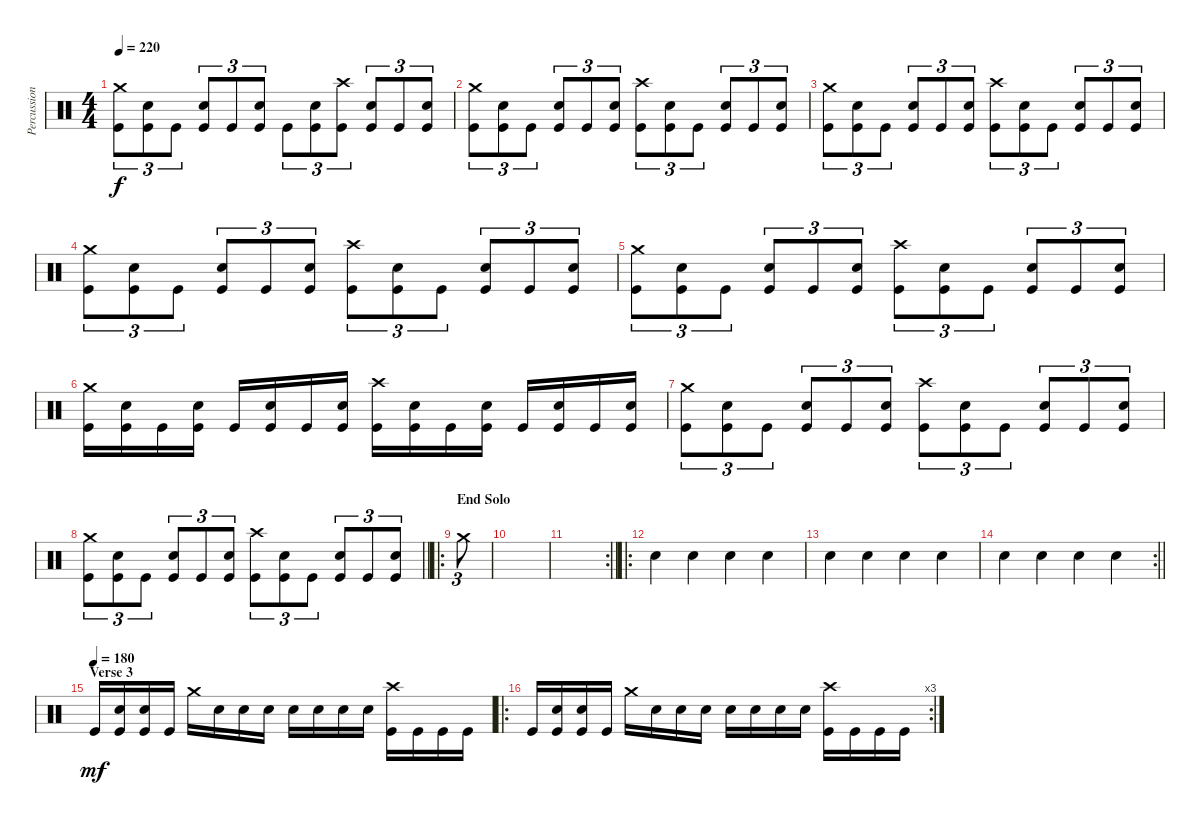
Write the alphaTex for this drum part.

\track ("Percussion" "Percussion") {instrument percussion}
\staff {score}
\articulation defaults
\ts (4 4)
\tempo 220
\clef neutral
\ks c
("Crash medium (hit)" "Kick (hit)").8{tu (3 2) dy f} ("Electric Snare (hit)" "Kick (hit)").8{tu (3 2)} "Kick (hit)".8{tu (3 2)} ("Electric Snare (hit)" "Kick (hit)").8{tu (3 2)} "Kick (hit)".8{tu (3 2)} ("Electric Snare (hit)" "Kick (hit)").8{tu (3 2)} "Kick (hit)".8{tu (3 2)} ("Electric Snare (hit)" "Kick (hit)").8{tu (3 2)} ("Crash high (hit)" "Kick (hit)").8{tu (3 2)} ("Electric Snare (hit)" "Kick (hit)").8{tu (3 2)} "Kick (hit)".8{tu (3 2)} ("Electric Snare (hit)" "Kick (hit)").8{tu (3 2)} |
("Crash medium (hit)" "Kick (hit)").8{tu (3 2)} ("Electric Snare (hit)" "Kick (hit)").8{tu (3 2)} "Kick (hit)".8{tu (3 2)} ("Electric Snare (hit)" "Kick (hit)").8{tu (3 2)} "Kick (hit)".8{tu (3 2)} ("Electric Snare (hit)" "Kick (hit)").8{tu (3 2)} ("Crash high (hit)" "Kick (hit)").8{tu (3 2)} ("Electric Snare (hit)" "Kick (hit)").8{tu (3 2)} "Kick (hit)".8{tu (3 2)} ("Electric Snare (hit)" "Kick (hit)").8{tu (3 2)} "Kick (hit)".8{tu (3 2)} ("Electric Snare (hit)" "Kick (hit)").8{tu (3 2)} |
("Crash medium (hit)" "Kick (hit)").8{tu (3 2)} ("Electric Snare (hit)" "Kick (hit)").8{tu (3 2)} "Kick (hit)".8{tu (3 2)} ("Electric Snare (hit)" "Kick (hit)").8{tu (3 2)} "Kick (hit)".8{tu (3 2)} ("Electric Snare (hit)" "Kick (hit)").8{tu (3 2)} ("Crash high (hit)" "Kick (hit)").8{tu (3 2)} ("Electric Snare (hit)" "Kick (hit)").8{tu (3 2)} "Kick (hit)".8{tu (3 2)} ("Electric Snare (hit)" "Kick (hit)").8{tu (3 2)} "Kick (hit)".8{tu (3 2)} ("Electric Snare (hit)" "Kick (hit)").8{tu (3 2)} |
("Crash medium (hit)" "Kick (hit)").8{tu (3 2)} ("Electric Snare (hit)" "Kick (hit)").8{tu (3 2)} "Kick (hit)".8{tu (3 2)} ("Electric Snare (hit)" "Kick (hit)").8{tu (3 2)} "Kick (hit)".8{tu (3 2)} ("Electric Snare (hit)" "Kick (hit)").8{tu (3 2)} ("Crash high (hit)" "Kick (hit)").8{tu (3 2)} ("Electric Snare (hit)" "Kick (hit)").8{tu (3 2)} "Kick (hit)".8{tu (3 2)} ("Electric Snare (hit)" "Kick (hit)").8{tu (3 2)} "Kick (hit)".8{tu (3 2)} ("Electric Snare (hit)" "Kick (hit)").8{tu (3 2)} |
("Crash medium (hit)" "Kick (hit)").8{tu (3 2)} ("Electric Snare (hit)" "Kick (hit)").8{tu (3 2)} "Kick (hit)".8{tu (3 2)} ("Electric Snare (hit)" "Kick (hit)").8{tu (3 2)} "Kick (hit)".8{tu (3 2)} ("Electric Snare (hit)" "Kick (hit)").8{tu (3 2)} ("Crash high (hit)" "Kick (hit)").8{tu (3 2)} ("Electric Snare (hit)" "Kick (hit)").8{tu (3 2)} "Kick (hit)".8{tu (3 2)} ("Electric Snare (hit)" "Kick (hit)").8{tu (3 2)} "Kick (hit)".8{tu (3 2)} ("Electric Snare (hit)" "Kick (hit)").8{tu (3 2)} |
("Crash medium (hit)" "Kick (hit)").16 ("Electric Snare (hit)" "Kick (hit)").16 "Kick (hit)".16 ("Electric Snare (hit)" "Kick (hit)").16 "Kick (hit)".16 ("Electric Snare (hit)" "Kick (hit)").16 "Kick (hit)".16 ("Electric Snare (hit)" "Kick (hit)").16 ("Crash high (hit)" "Kick (hit)").16 ("Electric Snare (hit)" "Kick (hit)").16 "Kick (hit)".16 ("Electric Snare (hit)" "Kick (hit)").16 "Kick (hit)".16 ("Electric Snare (hit)" "Kick (hit)").16 "Kick (hit)".16 ("Electric Snare (hit)" "Kick (hit)").16 |
("Crash medium (hit)" "Kick (hit)").8{tu (3 2)} ("Electric Snare (hit)" "Kick (hit)").8{tu (3 2)} "Kick (hit)".8{tu (3 2)} ("Electric Snare (hit)" "Kick (hit)").8{tu (3 2)} "Kick (hit)".8{tu (3 2)} ("Electric Snare (hit)" "Kick (hit)").8{tu (3 2)} ("Crash high (hit)" "Kick (hit)").8{tu (3 2)} ("Electric Snare (hit)" "Kick (hit)").8{tu (3 2)} "Kick (hit)".8{tu (3 2)} ("Electric Snare (hit)" "Kick (hit)").8{tu (3 2)} "Kick (hit)".8{tu (3 2)} ("Electric Snare (hit)" "Kick (hit)").8{tu (3 2)} |
\barLineRight lightlight
("Crash medium (hit)" "Kick (hit)").8{tu (3 2)} ("Electric Snare (hit)" "Kick (hit)").8{tu (3 2)} "Kick (hit)".8{tu (3 2)} ("Electric Snare (hit)" "Kick (hit)").8{tu (3 2)} "Kick (hit)".8{tu (3 2)} ("Electric Snare (hit)" "Kick (hit)").8{tu (3 2)} ("Crash high (hit)" "Kick (hit)").8{tu (3 2)} ("Electric Snare (hit)" "Kick (hit)").8{tu (3 2)} "Kick (hit)".8{tu (3 2)} ("Electric Snare (hit)" "Kick (hit)").8{tu (3 2)} "Kick (hit)".8{tu (3 2)} ("Electric Snare (hit)" "Kick (hit)").8{tu (3 2)} |
\ro
\section ("" "End Solo")
"Crash medium (hit)".8{tu (3 2) volume 0} |
|
\rc 2
\barLineRight lightlight
|
\ro "Electric Snare (hit)".4{volume 16} "Electric Snare (hit)".4 "Electric Snare (hit)".4 "Electric Snare (hit)".4
|
"Electric Snare (hit)".4 "Electric Snare (hit)".4 "Electric Snare (hit)".4 "Electric Snare (hit)".4 |
\rc 2
\barLineRight lightlight "Electric Snare (hit)".4 "Electric Snare (hit)".4 "Electric Snare (hit)".4 "Electric Snare (hit)".4
|
\section ("" "Verse 3")
\tempo (180)
"Kick (hit)".16{dy mf} ("Electric Snare (hit)" "Kick (hit)").16 ("Electric Snare (hit)" "Kick (hit)").16 "Kick (hit)".16 "Crash medium (hit)".16 "Electric Snare (hit)".16 "Electric Snare (hit)".16 "Electric Snare (hit)".16 "Electric Snare (hit)".16 "Electric Snare (hit)".16 "Electric Snare (hit)".16 "Electric Snare (hit)".16 ("Crash high (hit)" "Kick (hit)").16 "Kick (hit)".16 "Kick (hit)".16 "Kick (hit)".16 |
\ro
\rc 3 "Kick (hit)".16
("Electric Snare (hit)" "Kick (hit)").16 ("Electric Snare (hit)" "Kick (hit)").16 "Kick (hit)".16 "Crash medium (hit)".16 "Electric Snare (hit)".16 "Electric Snare (hit)".16 "Electric Snare (hit)".16 "Electric Snare (hit)".16 "Electric Snare (hit)".16 "Electric Snare (hit)".16 "Electric Snare (hit)".16 ("Crash high (hit)" "Kick (hit)").16 "Kick (hit)".16 "Kick (hit)".16 "Kick (hit)".16
